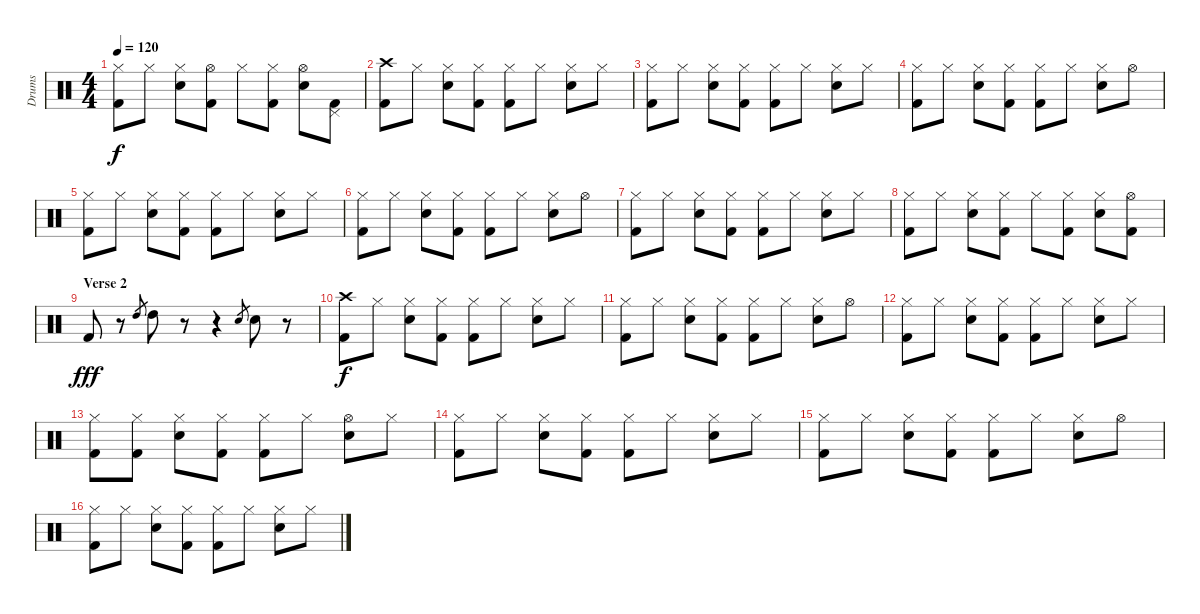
\track ("Drums" "Drums") {instrument percussion}
\staff {score}
\articulation defaults
\ts (4 4)
\tempo 120
\clef neutral
\ks c
("Hi-Hat (closed)" "Kick (hit) 2").8{dy f} "Hi-Hat (closed)".8 ("Hi-Hat (closed)" "Snare (hit) 2").8 ("Hi-Hat (open)" "Kick (hit) 2").8 "Hi-Hat (closed)".8 ("Hi-Hat (closed)" "Kick (hit) 2").8 ("Hi-Hat (open)" "Snare (hit) 2").8 ("Pedal Hi-Hat (hit)" "Kick (hit) 2").8 |
("Crash high (hit)" "Kick (hit) 2").8 "Hi-Hat (closed)".8 ("Hi-Hat (closed)" "Snare (hit) 2").8 ("Hi-Hat (closed)" "Kick (hit) 2").8 ("Hi-Hat (closed)" "Kick (hit) 2").8 "Hi-Hat (closed)".8 ("Hi-Hat (closed)" "Snare (hit) 2").8 "Hi-Hat (closed)".8 |
("Hi-Hat (closed)" "Kick (hit) 2").8 "Hi-Hat (closed)".8 ("Hi-Hat (closed)" "Snare (hit) 2").8 ("Hi-Hat (closed)" "Kick (hit) 2").8 ("Hi-Hat (closed)" "Kick (hit) 2").8 "Hi-Hat (closed)".8 ("Hi-Hat (closed)" "Snare (hit) 2").8 "Hi-Hat (closed)".8 |
("Hi-Hat (closed)" "Kick (hit) 2").8 "Hi-Hat (closed)".8 ("Hi-Hat (closed)" "Snare (hit) 2").8 ("Hi-Hat (closed)" "Kick (hit) 2").8 ("Hi-Hat (closed)" "Kick (hit) 2").8 "Hi-Hat (closed)".8 ("Hi-Hat (closed)" "Snare (hit) 2").8 "Hi-Hat (open)".8 |
("Hi-Hat (closed)" "Kick (hit) 2").8 "Hi-Hat (closed)".8 ("Hi-Hat (closed)" "Snare (hit) 2").8 ("Hi-Hat (closed)" "Kick (hit) 2").8 ("Hi-Hat (closed)" "Kick (hit) 2").8 "Hi-Hat (closed)".8 ("Hi-Hat (closed)" "Snare (hit) 2").8 "Hi-Hat (closed)".8 |
("Hi-Hat (closed)" "Kick (hit) 2").8 "Hi-Hat (closed)".8 ("Hi-Hat (closed)" "Snare (hit) 2").8 ("Hi-Hat (closed)" "Kick (hit) 2").8 ("Hi-Hat (closed)" "Kick (hit) 2").8 "Hi-Hat (closed)".8 ("Hi-Hat (closed)" "Snare (hit) 2").8 "Hi-Hat (open)".8 |
("Hi-Hat (closed)" "Kick (hit) 2").8 "Hi-Hat (closed)".8 ("Hi-Hat (closed)" "Snare (hit) 2").8 ("Hi-Hat (closed)" "Kick (hit) 2").8 ("Hi-Hat (closed)" "Kick (hit) 2").8 "Hi-Hat (closed)".8 ("Hi-Hat (closed)" "Snare (hit) 2").8 "Hi-Hat (closed)".8 |
("Hi-Hat (closed)" "Kick (hit) 2").8 "Hi-Hat (closed)".8 ("Hi-Hat (closed)" "Snare (hit) 2").8 ("Hi-Hat (closed)" "Kick (hit) 2").8 "Hi-Hat (closed)".8 ("Hi-Hat (closed)" "Kick (hit) 2").8 ("Hi-Hat (closed)" "Snare (hit) 2").8 ("Hi-Hat (open)" "Kick (hit) 2").8 |
\section ("" "Verse 2")
"Kick (hit) 2".8{dy fff} r.8 "High Tom (hit)".8{gr} "High Tom (hit)".8 r.8 r.4 "Snare (hit) 2".8{gr} "Snare (hit) 2".8 r.8 |
("Crash high (hit)" "Kick (hit) 2").8{dy f} "Hi-Hat (closed)".8 ("Hi-Hat (closed)" "Snare (hit) 2").8 ("Hi-Hat (closed)" "Kick (hit) 2").8 ("Hi-Hat (closed)" "Kick (hit) 2").8 "Hi-Hat (closed)".8 ("Hi-Hat (closed)" "Snare (hit) 2").8 "Hi-Hat (closed)".8 |
("Hi-Hat (closed)" "Kick (hit) 2").8 "Hi-Hat (closed)".8 ("Hi-Hat (closed)" "Snare (hit) 2").8 ("Hi-Hat (closed)" "Kick (hit) 2").8 ("Hi-Hat (closed)" "Kick (hit) 2").8 "Hi-Hat (closed)".8 ("Hi-Hat (closed)" "Snare (hit) 2").8 "Hi-Hat (open)".8 |
("Hi-Hat (closed)" "Kick (hit) 2").8 "Hi-Hat (closed)".8 ("Hi-Hat (closed)" "Snare (hit) 2").8 ("Hi-Hat (closed)" "Kick (hit) 2").8 ("Hi-Hat (closed)" "Kick (hit) 2").8 "Hi-Hat (closed)".8 ("Hi-Hat (closed)" "Snare (hit) 2").8 "Hi-Hat (closed)".8 |
("Hi-Hat (closed)" "Kick (hit) 2").8 ("Hi-Hat (closed)" "Kick (hit) 2").8 ("Hi-Hat (closed)" "Snare (hit) 2").8 ("Hi-Hat (closed)" "Kick (hit) 2").8 ("Hi-Hat (closed)" "Kick (hit) 2").8 "Hi-Hat (closed)".8 ("Hi-Hat (open)" "Snare (hit) 2").8 "Hi-Hat (closed)".8 |
("Hi-Hat (closed)" "Kick (hit) 2").8 "Hi-Hat (closed)".8 ("Hi-Hat (closed)" "Snare (hit) 2").8 ("Hi-Hat (closed)" "Kick (hit) 2").8 ("Hi-Hat (closed)" "Kick (hit) 2").8 "Hi-Hat (closed)".8 ("Hi-Hat (closed)" "Snare (hit) 2").8 "Hi-Hat (closed)".8 |
("Hi-Hat (closed)" "Kick (hit) 2").8 "Hi-Hat (closed)".8 ("Hi-Hat (closed)" "Snare (hit) 2").8 ("Hi-Hat (closed)" "Kick (hit) 2").8 ("Hi-Hat (closed)" "Kick (hit) 2").8 "Hi-Hat (closed)".8 ("Hi-Hat (closed)" "Snare (hit) 2").8 "Hi-Hat (open)".8 |
("Hi-Hat (closed)" "Kick (hit) 2").8 "Hi-Hat (closed)".8 ("Hi-Hat (closed)" "Snare (hit) 2").8 ("Hi-Hat (closed)" "Kick (hit) 2").8 ("Hi-Hat (closed)" "Kick (hit) 2").8 "Hi-Hat (closed)".8 ("Hi-Hat (closed)" "Snare (hit) 2").8 "Hi-Hat (closed)".8
